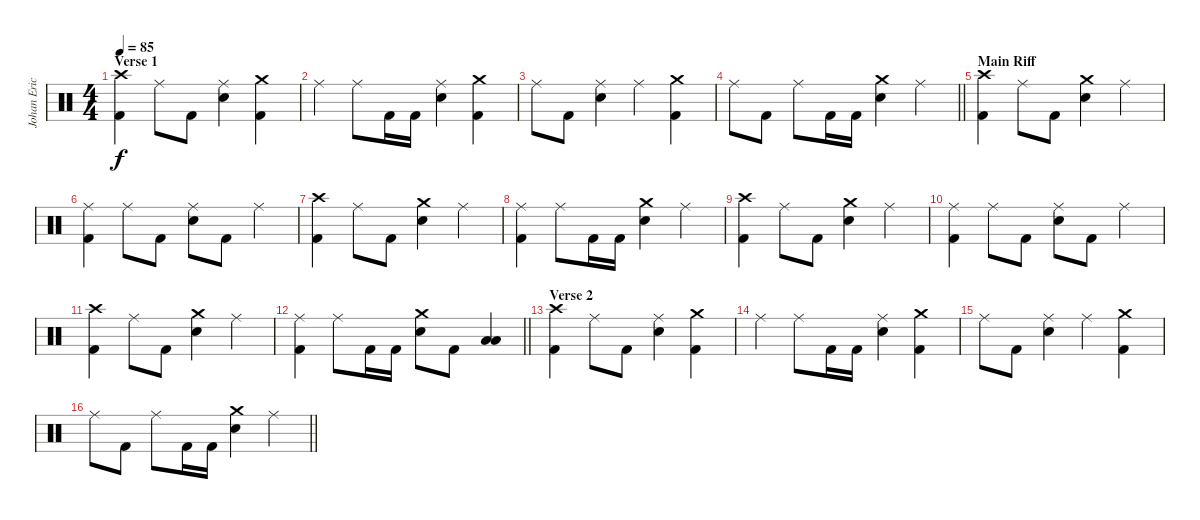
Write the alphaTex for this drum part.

\track ("Johan Ericson" "Johan Eric") {instrument percussion}
\staff {score}
\articulation defaults
\ts (4 4)
\section ("" "Verse 1")
\tempo 85
\clef neutral
\ks c
("Crash high (hit)" "Kick (hit) 2").4{dy f} "Ride (middle)".8 "Kick (hit) 2".8 ("Ride (middle)" "Snare (hit) 2").4 ("Crash medium (hit)" "Kick (hit) 2").4 |
"Ride (middle)".4 "Ride (middle)".8 "Kick (hit) 2".16 "Kick (hit) 2".16 ("Ride (middle)" "Snare (hit) 2").4 ("Crash medium (hit)" "Kick (hit) 2").4 |
"Ride (middle)".8 "Kick (hit) 2".8 ("Ride (middle)" "Snare (hit) 2").4 "Ride (middle)".4 ("Crash medium (hit)" "Kick (hit) 2").4 |
\barLineRight lightlight "Ride (middle)".8 "Kick (hit) 2".8 "Ride (middle)".8 "Kick (hit) 2".16 "Kick (hit) 2".16
("Crash medium (hit)" "Snare (hit) 2").4 "Ride (middle)".4 |
\section ("" "Main Riff")
("Crash high (hit)" "Kick (hit) 2").4 "Ride (middle)".8 "Kick (hit) 2".8 ("Crash medium (hit)" "Snare (hit) 2").4 "Ride (middle)".4 |
("Ride (middle)" "Kick (hit) 2").4 "Ride (middle)".8 "Kick (hit) 2".8 ("Ride (middle)" "Snare (hit) 2").8 "Kick (hit) 2".8 "Ride (middle)".4 |
("Crash high (hit)" "Kick (hit) 2").4 "Ride (middle)".8 "Kick (hit) 2".8 ("Crash medium (hit)" "Snare (hit) 2").4 "Ride (middle)".4 |
("Ride (middle)" "Kick (hit) 2").4 "Ride (middle)".8 "Kick (hit) 2".16 "Kick (hit) 2".16 ("Crash medium (hit)" "Snare (hit) 2").4 "Ride (middle)".4 |
("Crash high (hit)" "Kick (hit) 2").4 "Ride (middle)".8 "Kick (hit) 2".8 ("Crash medium (hit)" "Snare (hit) 2").4 "Ride (middle)".4 |
("Ride (middle)" "Kick (hit) 2").4 "Ride (middle)".8 "Kick (hit) 2".8 ("Ride (middle)" "Snare (hit) 2").8 "Kick (hit) 2".8 "Ride (middle)".4 |
("Crash high (hit)" "Kick (hit) 2").4 "Ride (middle)".8 "Kick (hit) 2".8 ("Crash medium (hit)" "Snare (hit) 2").4 "Ride (middle)".4 |
\barLineRight lightlight
("Ride (middle)" "Kick (hit) 2").4 "Ride (middle)".8 "Kick (hit) 2".16 "Kick (hit) 2".16 ("Crash medium (hit)" "Snare (hit) 2").8 "Kick (hit) 2".8 ("Low Floor Tom (hit)" "Low Tom (hit)").4 |
\section ("" "Verse 2")
("Crash high (hit)" "Kick (hit) 2").4 "Ride (middle)".8 "Kick (hit) 2".8 ("Ride (middle)" "Snare (hit) 2").4 ("Crash medium (hit)" "Kick (hit) 2").4 |
"Ride (middle)".4 "Ride (middle)".8 "Kick (hit) 2".16 "Kick (hit) 2".16 ("Ride (middle)" "Snare (hit) 2").4 ("Crash medium (hit)" "Kick (hit) 2").4 |
"Ride (middle)".8 "Kick (hit) 2".8 ("Ride (middle)" "Snare (hit) 2").4 "Ride (middle)".4 ("Crash medium (hit)" "Kick (hit) 2").4 |
\barLineRight lightlight "Ride (middle)".8 "Kick (hit) 2".8 "Ride (middle)".8 "Kick (hit) 2".16 "Kick (hit) 2".16
("Crash medium (hit)" "Snare (hit) 2").4 "Ride (middle)".4
